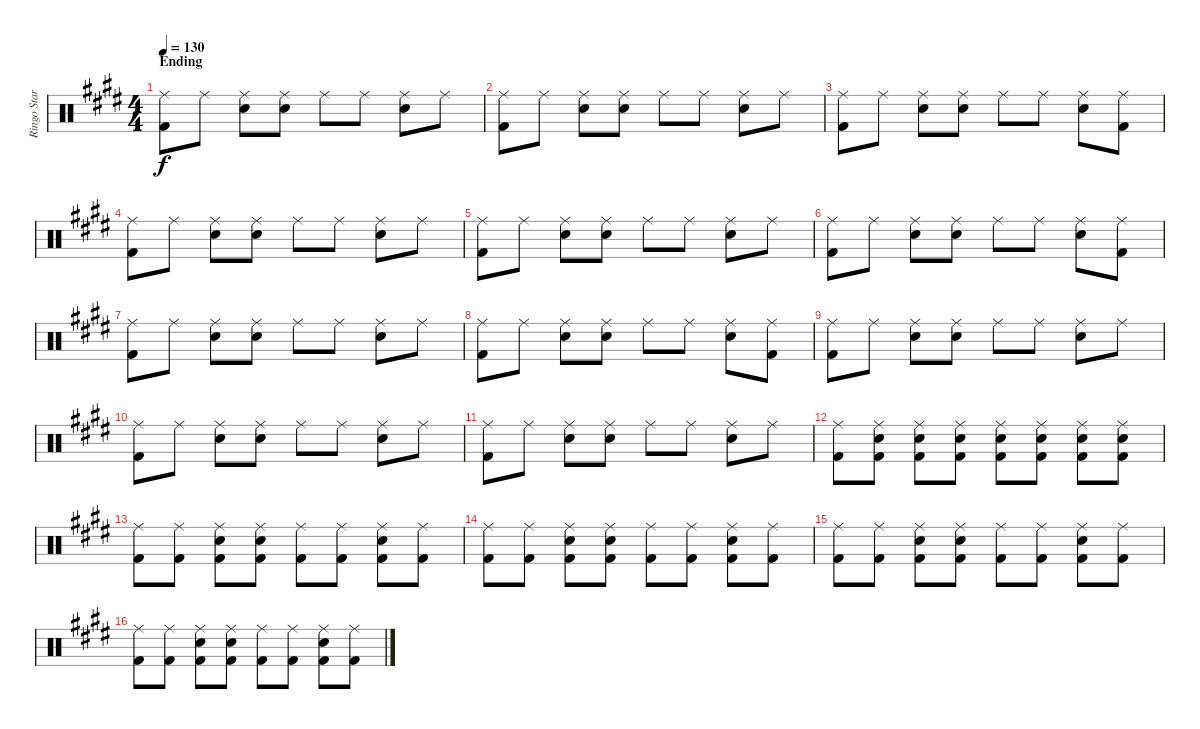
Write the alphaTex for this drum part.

\track ("Ringo Starr Drums" "Ringo Star") {instrument percussion}
\staff {score}
\articulation defaults
\ts (4 4)
\section ("" "Ending")
\tempo 130
\clef neutral
\ks e
("Ride (middle)" "Kick (hit) 2").8{dy f} "Ride (middle)".8 ("Ride (middle)" "Snare (hit) 2").8 ("Ride (middle)" "Snare (hit) 2").8 "Ride (middle)".8 "Ride (middle)".8 ("Ride (middle)" "Snare (hit) 2").8 "Ride (middle)".8 |
("Ride (middle)" "Kick (hit) 2").8 "Ride (middle)".8 ("Ride (middle)" "Snare (hit) 2").8 ("Ride (middle)" "Snare (hit) 2").8 "Ride (middle)".8 "Ride (middle)".8 ("Ride (middle)" "Snare (hit) 2").8 "Ride (middle)".8 |
("Ride (middle)" "Kick (hit) 2").8 "Ride (middle)".8 ("Ride (middle)" "Snare (hit) 2").8 ("Ride (middle)" "Snare (hit) 2").8 "Ride (middle)".8 "Ride (middle)".8 ("Ride (middle)" "Snare (hit) 2").8 ("Ride (middle)" "Kick (hit) 2").8 |
("Ride (middle)" "Kick (hit) 2").8 "Ride (middle)".8 ("Ride (middle)" "Snare (hit) 2").8 ("Ride (middle)" "Snare (hit) 2").8 "Ride (middle)".8 "Ride (middle)".8 ("Ride (middle)" "Snare (hit) 2").8 "Ride (middle)".8 |
("Ride (middle)" "Kick (hit) 2").8 "Ride (middle)".8 ("Ride (middle)" "Snare (hit) 2").8 ("Ride (middle)" "Snare (hit) 2").8 "Ride (middle)".8 "Ride (middle)".8 ("Ride (middle)" "Snare (hit) 2").8 "Ride (middle)".8 |
("Ride (middle)" "Kick (hit) 2").8 "Ride (middle)".8 ("Ride (middle)" "Snare (hit) 2").8 ("Ride (middle)" "Snare (hit) 2").8 "Ride (middle)".8 "Ride (middle)".8 ("Ride (middle)" "Snare (hit) 2").8 ("Ride (middle)" "Kick (hit) 2").8 |
("Ride (middle)" "Kick (hit) 2").8 "Ride (middle)".8 ("Ride (middle)" "Snare (hit) 2").8 ("Ride (middle)" "Snare (hit) 2").8 "Ride (middle)".8 "Ride (middle)".8 ("Ride (middle)" "Snare (hit) 2").8 "Ride (middle)".8 |
("Ride (middle)" "Kick (hit) 2").8 "Ride (middle)".8 ("Ride (middle)" "Snare (hit) 2").8 ("Ride (middle)" "Snare (hit) 2").8 "Ride (middle)".8 "Ride (middle)".8 ("Ride (middle)" "Snare (hit) 2").8 ("Ride (middle)" "Kick (hit) 2").8 |
("Ride (middle)" "Kick (hit) 2").8 "Ride (middle)".8 ("Ride (middle)" "Snare (hit) 2").8 ("Ride (middle)" "Snare (hit) 2").8 "Ride (middle)".8 "Ride (middle)".8 ("Ride (middle)" "Snare (hit) 2").8 "Ride (middle)".8 |
("Ride (middle)" "Kick (hit) 2").8 "Ride (middle)".8 ("Ride (middle)" "Snare (hit) 2").8 ("Ride (middle)" "Snare (hit) 2").8 "Ride (middle)".8 "Ride (middle)".8 ("Ride (middle)" "Snare (hit) 2").8 "Ride (middle)".8 |
("Ride (middle)" "Kick (hit) 2").8 "Ride (middle)".8 ("Ride (middle)" "Snare (hit) 2").8 ("Ride (middle)" "Snare (hit) 2").8 "Ride (middle)".8 "Ride (middle)".8 ("Ride (middle)" "Snare (hit) 2").8 "Ride (middle)".8 |
("Ride (middle)" "Kick (hit) 2").8 ("Ride (middle)" "Snare (hit) 2" "Kick (hit) 2").8 ("Ride (middle)" "Snare (hit) 2" "Kick (hit) 2").8 ("Ride (middle)" "Snare (hit) 2" "Kick (hit) 2").8 ("Ride (middle)" "Snare (hit) 2" "Kick (hit) 2").8 ("Ride (middle)" "Snare (hit) 2" "Kick (hit) 2").8 ("Ride (middle)" "Snare (hit) 2" "Kick (hit) 2").8 ("Ride (middle)" "Snare (hit) 2" "Kick (hit) 2").8 |
("Ride (middle)" "Kick (hit) 2").8 ("Ride (middle)" "Kick (hit) 2").8 ("Ride (middle)" "Snare (hit) 2" "Kick (hit) 2").8 ("Ride (middle)" "Snare (hit) 2" "Kick (hit) 2").8 ("Ride (middle)" "Kick (hit) 2").8 ("Ride (middle)" "Kick (hit) 2").8 ("Ride (middle)" "Snare (hit) 2" "Kick (hit) 2").8 ("Ride (middle)" "Kick (hit) 2").8 |
("Ride (middle)" "Kick (hit) 2").8 ("Ride (middle)" "Kick (hit) 2").8 ("Ride (middle)" "Snare (hit) 2" "Kick (hit) 2").8 ("Ride (middle)" "Snare (hit) 2" "Kick (hit) 2").8 ("Ride (middle)" "Kick (hit) 2").8 ("Ride (middle)" "Kick (hit) 2").8 ("Ride (middle)" "Snare (hit) 2" "Kick (hit) 2").8 ("Ride (middle)" "Kick (hit) 2").8 |
("Ride (middle)" "Kick (hit) 2").8 ("Ride (middle)" "Kick (hit) 2").8 ("Ride (middle)" "Snare (hit) 2" "Kick (hit) 2").8 ("Ride (middle)" "Snare (hit) 2" "Kick (hit) 2").8 ("Ride (middle)" "Kick (hit) 2").8 ("Ride (middle)" "Kick (hit) 2").8 ("Ride (middle)" "Snare (hit) 2" "Kick (hit) 2").8 ("Ride (middle)" "Kick (hit) 2").8 |
("Ride (middle)" "Kick (hit) 2").8 ("Ride (middle)" "Kick (hit) 2").8 ("Ride (middle)" "Snare (hit) 2" "Kick (hit) 2").8 ("Ride (middle)" "Snare (hit) 2" "Kick (hit) 2").8 ("Ride (middle)" "Kick (hit) 2").8 ("Ride (middle)" "Kick (hit) 2").8 ("Ride (middle)" "Snare (hit) 2" "Kick (hit) 2").8 ("Ride (middle)" "Kick (hit) 2").8
